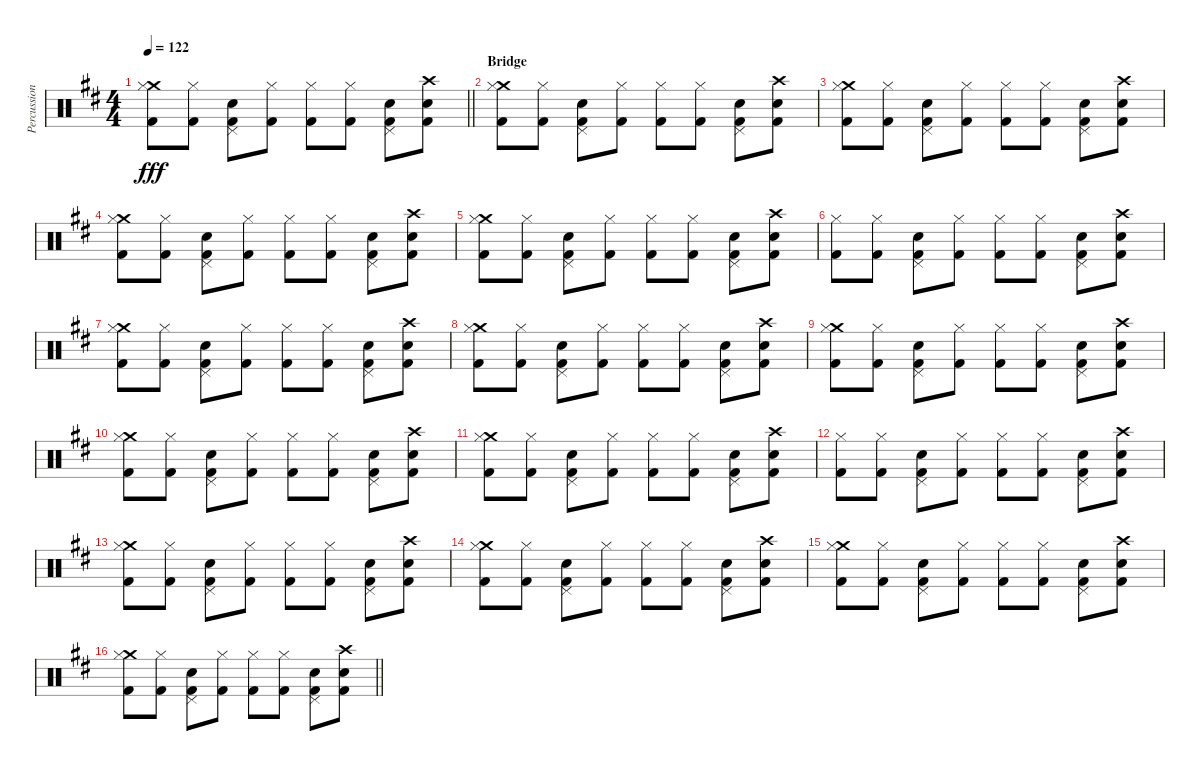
\track ("Percussion: Boz Burrell" "Percussion") {instrument percussion}
\staff {score}
\articulation defaults
\ts (4 4)
\tempo 122
\clef neutral
\barLineRight lightlight
\ks d
("Crash medium (hit)" "Hi-Hat (closed)" "Kick (hit) 2").8{dy fff} ("Hi-Hat (closed)" "Kick (hit) 2").8 ("Pedal Hi-Hat (hit)" "Snare (hit) 2" "Kick (hit) 2").8 ("Hi-Hat (closed)" "Kick (hit) 2").8 ("Hi-Hat (closed)" "Kick (hit) 2").8 ("Hi-Hat (closed)" "Kick (hit) 2").8 ("Pedal Hi-Hat (hit)" "Snare (hit) 2" "Kick (hit) 2").8 ("Crash high (hit)" "Snare (hit) 2" "Kick (hit) 2").8 |
\section ("" "Bridge")
("Crash medium (hit)" "Hi-Hat (closed)" "Kick (hit) 2").8 ("Hi-Hat (closed)" "Kick (hit) 2").8 ("Pedal Hi-Hat (hit)" "Snare (hit) 2" "Kick (hit) 2").8 ("Hi-Hat (closed)" "Kick (hit) 2").8 ("Hi-Hat (closed)" "Kick (hit) 2").8 ("Hi-Hat (closed)" "Kick (hit) 2").8 ("Pedal Hi-Hat (hit)" "Snare (hit) 2" "Kick (hit) 2").8 ("Crash high (hit)" "Snare (hit) 2" "Kick (hit) 2").8 |
("Crash medium (hit)" "Hi-Hat (closed)" "Kick (hit) 2").8 ("Hi-Hat (closed)" "Kick (hit) 2").8 ("Pedal Hi-Hat (hit)" "Snare (hit) 2" "Kick (hit) 2").8 ("Hi-Hat (closed)" "Kick (hit) 2").8 ("Hi-Hat (closed)" "Kick (hit) 2").8 ("Hi-Hat (closed)" "Kick (hit) 2").8 ("Pedal Hi-Hat (hit)" "Snare (hit) 2" "Kick (hit) 2").8 ("Crash high (hit)" "Snare (hit) 2" "Kick (hit) 2").8 |
("Crash medium (hit)" "Hi-Hat (closed)" "Kick (hit) 2").8 ("Hi-Hat (closed)" "Kick (hit) 2").8 ("Pedal Hi-Hat (hit)" "Snare (hit) 2" "Kick (hit) 2").8 ("Hi-Hat (closed)" "Kick (hit) 2").8 ("Hi-Hat (closed)" "Kick (hit) 2").8 ("Hi-Hat (closed)" "Kick (hit) 2").8 ("Pedal Hi-Hat (hit)" "Snare (hit) 2" "Kick (hit) 2").8 ("Crash high (hit)" "Snare (hit) 2" "Kick (hit) 2").8 |
("Crash medium (hit)" "Hi-Hat (closed)" "Kick (hit) 2").8 ("Hi-Hat (closed)" "Kick (hit) 2").8 ("Pedal Hi-Hat (hit)" "Snare (hit) 2" "Kick (hit) 2").8 ("Hi-Hat (closed)" "Kick (hit) 2").8 ("Hi-Hat (closed)" "Kick (hit) 2").8 ("Hi-Hat (closed)" "Kick (hit) 2").8 ("Pedal Hi-Hat (hit)" "Snare (hit) 2" "Kick (hit) 2").8 ("Crash high (hit)" "Snare (hit) 2" "Kick (hit) 2").8 |
("Hi-Hat (closed)" "Kick (hit) 2").8 ("Hi-Hat (closed)" "Kick (hit) 2").8 ("Pedal Hi-Hat (hit)" "Snare (hit) 2" "Kick (hit) 2").8 ("Hi-Hat (closed)" "Kick (hit) 2").8 ("Hi-Hat (closed)" "Kick (hit) 2").8 ("Hi-Hat (closed)" "Kick (hit) 2").8 ("Pedal Hi-Hat (hit)" "Snare (hit) 2" "Kick (hit) 2").8 ("Crash high (hit)" "Snare (hit) 2" "Kick (hit) 2").8 |
("Crash medium (hit)" "Hi-Hat (closed)" "Kick (hit) 2").8 ("Hi-Hat (closed)" "Kick (hit) 2").8 ("Pedal Hi-Hat (hit)" "Snare (hit) 2" "Kick (hit) 2").8 ("Hi-Hat (closed)" "Kick (hit) 2").8 ("Hi-Hat (closed)" "Kick (hit) 2").8 ("Hi-Hat (closed)" "Kick (hit) 2").8 ("Pedal Hi-Hat (hit)" "Snare (hit) 2" "Kick (hit) 2").8 ("Crash high (hit)" "Snare (hit) 2" "Kick (hit) 2").8 |
("Crash medium (hit)" "Hi-Hat (closed)" "Kick (hit) 2").8 ("Hi-Hat (closed)" "Kick (hit) 2").8 ("Pedal Hi-Hat (hit)" "Snare (hit) 2" "Kick (hit) 2").8 ("Hi-Hat (closed)" "Kick (hit) 2").8 ("Hi-Hat (closed)" "Kick (hit) 2").8 ("Hi-Hat (closed)" "Kick (hit) 2").8 ("Pedal Hi-Hat (hit)" "Snare (hit) 2" "Kick (hit) 2").8 ("Crash high (hit)" "Snare (hit) 2" "Kick (hit) 2").8 |
("Crash medium (hit)" "Hi-Hat (closed)" "Kick (hit) 2").8 ("Hi-Hat (closed)" "Kick (hit) 2").8 ("Pedal Hi-Hat (hit)" "Snare (hit) 2" "Kick (hit) 2").8 ("Hi-Hat (closed)" "Kick (hit) 2").8 ("Hi-Hat (closed)" "Kick (hit) 2").8 ("Hi-Hat (closed)" "Kick (hit) 2").8 ("Pedal Hi-Hat (hit)" "Snare (hit) 2" "Kick (hit) 2").8 ("Crash high (hit)" "Snare (hit) 2" "Kick (hit) 2").8 |
("Crash medium (hit)" "Hi-Hat (closed)" "Kick (hit) 2").8 ("Hi-Hat (closed)" "Kick (hit) 2").8 ("Pedal Hi-Hat (hit)" "Snare (hit) 2" "Kick (hit) 2").8 ("Hi-Hat (closed)" "Kick (hit) 2").8 ("Hi-Hat (closed)" "Kick (hit) 2").8 ("Hi-Hat (closed)" "Kick (hit) 2").8 ("Pedal Hi-Hat (hit)" "Snare (hit) 2" "Kick (hit) 2").8 ("Crash high (hit)" "Snare (hit) 2" "Kick (hit) 2").8 |
("Crash medium (hit)" "Hi-Hat (closed)" "Kick (hit) 2").8 ("Hi-Hat (closed)" "Kick (hit) 2").8 ("Pedal Hi-Hat (hit)" "Snare (hit) 2" "Kick (hit) 2").8 ("Hi-Hat (closed)" "Kick (hit) 2").8 ("Hi-Hat (closed)" "Kick (hit) 2").8 ("Hi-Hat (closed)" "Kick (hit) 2").8 ("Pedal Hi-Hat (hit)" "Snare (hit) 2" "Kick (hit) 2").8 ("Crash high (hit)" "Snare (hit) 2" "Kick (hit) 2").8 |
("Hi-Hat (closed)" "Kick (hit) 2").8 ("Hi-Hat (closed)" "Kick (hit) 2").8 ("Pedal Hi-Hat (hit)" "Snare (hit) 2" "Kick (hit) 2").8 ("Hi-Hat (closed)" "Kick (hit) 2").8 ("Hi-Hat (closed)" "Kick (hit) 2").8 ("Hi-Hat (closed)" "Kick (hit) 2").8 ("Pedal Hi-Hat (hit)" "Snare (hit) 2" "Kick (hit) 2").8 ("Crash high (hit)" "Snare (hit) 2" "Kick (hit) 2").8 |
("Crash medium (hit)" "Hi-Hat (closed)" "Kick (hit) 2").8 ("Hi-Hat (closed)" "Kick (hit) 2").8 ("Pedal Hi-Hat (hit)" "Snare (hit) 2" "Kick (hit) 2").8 ("Hi-Hat (closed)" "Kick (hit) 2").8 ("Hi-Hat (closed)" "Kick (hit) 2").8 ("Hi-Hat (closed)" "Kick (hit) 2").8 ("Pedal Hi-Hat (hit)" "Snare (hit) 2" "Kick (hit) 2").8 ("Crash high (hit)" "Snare (hit) 2" "Kick (hit) 2").8 |
("Crash medium (hit)" "Hi-Hat (closed)" "Kick (hit) 2").8 ("Hi-Hat (closed)" "Kick (hit) 2").8 ("Pedal Hi-Hat (hit)" "Snare (hit) 2" "Kick (hit) 2").8 ("Hi-Hat (closed)" "Kick (hit) 2").8 ("Hi-Hat (closed)" "Kick (hit) 2").8 ("Hi-Hat (closed)" "Kick (hit) 2").8 ("Pedal Hi-Hat (hit)" "Snare (hit) 2" "Kick (hit) 2").8 ("Crash high (hit)" "Snare (hit) 2" "Kick (hit) 2").8 |
("Crash medium (hit)" "Hi-Hat (closed)" "Kick (hit) 2").8 ("Hi-Hat (closed)" "Kick (hit) 2").8 ("Pedal Hi-Hat (hit)" "Snare (hit) 2" "Kick (hit) 2").8 ("Hi-Hat (closed)" "Kick (hit) 2").8 ("Hi-Hat (closed)" "Kick (hit) 2").8 ("Hi-Hat (closed)" "Kick (hit) 2").8 ("Pedal Hi-Hat (hit)" "Snare (hit) 2" "Kick (hit) 2").8 ("Crash high (hit)" "Snare (hit) 2" "Kick (hit) 2").8 |
\barLineRight lightlight
("Crash medium (hit)" "Hi-Hat (closed)" "Kick (hit) 2").8 ("Hi-Hat (closed)" "Kick (hit) 2").8 ("Pedal Hi-Hat (hit)" "Snare (hit) 2" "Kick (hit) 2").8 ("Hi-Hat (closed)" "Kick (hit) 2").8 ("Hi-Hat (closed)" "Kick (hit) 2").8 ("Hi-Hat (closed)" "Kick (hit) 2").8 ("Pedal Hi-Hat (hit)" "Snare (hit) 2" "Kick (hit) 2").8 ("Crash high (hit)" "Snare (hit) 2" "Kick (hit) 2").8
